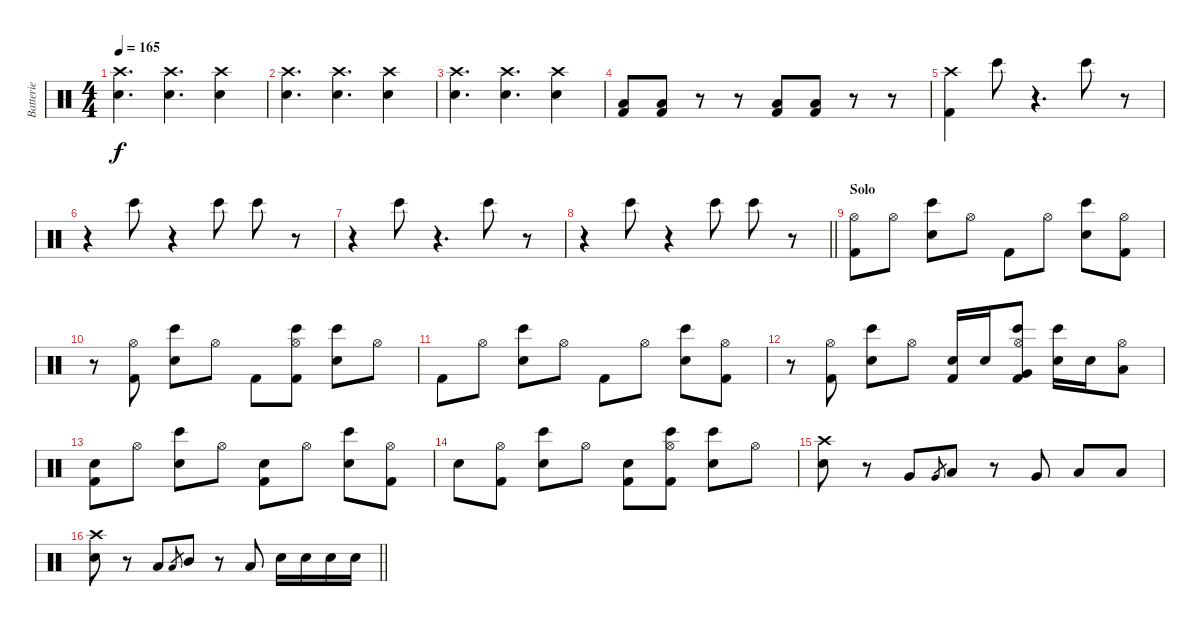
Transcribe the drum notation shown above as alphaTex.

\track ("Batterie" "Batterie") {instrument percussion}
\staff {score}
\articulation defaults
\ts (4 4)
\tempo 165
\clef neutral
\ks c
("Crash high (hit)" "Electric Snare (hit)").4{d dy f} ("Crash high (hit)" "Electric Snare (hit)").4{d} ("Crash high (hit)" "Electric Snare (hit)").4 |
("Crash high (hit)" "Electric Snare (hit)").4{d} ("Crash high (hit)" "Electric Snare (hit)").4{d} ("Crash high (hit)" "Electric Snare (hit)").4 |
("Crash high (hit)" "Electric Snare (hit)").4{d} ("Crash high (hit)" "Electric Snare (hit)").4{d} ("Crash high (hit)" "Electric Snare (hit)").4 |
("Kick (hit) 2" "Low Floor Tom (hit)").8 ("Kick (hit) 2" "Low Floor Tom (hit)").8 r.8 r.8 ("Kick (hit) 2" "Low Floor Tom (hit)").8 ("Kick (hit) 2" "Low Floor Tom (hit)").8 r.8 r.8 |
("Crash high (hit)" "Kick (hit) 2").4 "Bongo High (hit)".8 r.4{d} "Bongo High (hit)".8 r.8 |
r.4 "Bongo High (hit)".8 r.4 "Bongo High (hit)".8 "Bongo High (hit)".8 r.8 |
r.4 "Bongo High (hit)".8 r.4{d} "Bongo High (hit)".8 r.8 |
\barLineRight lightlight
r.4 "Bongo High (hit)".8 r.4 "Bongo High (hit)".8 "Bongo High (hit)".8 r.8 |
\section ("" "Solo")
("Hi-Hat (open)" "Kick (hit) 2").8 "Hi-Hat (open)".8 ("Electric Snare (hit)" "Bongo High (hit)").8 "Hi-Hat (open)".8 "Kick (hit) 2".8 "Hi-Hat (open)".8 ("Electric Snare (hit)" "Bongo High (hit)").8 ("Hi-Hat (open)" "Kick (hit) 2").8 |
r.8 ("Hi-Hat (open)" "Kick (hit) 2").8 ("Electric Snare (hit)" "Bongo High (hit)").8 "Hi-Hat (open)".8 "Kick (hit) 2".8 ("Hi-Hat (open)" "Kick (hit) 2" "Bongo High (hit)").8 ("Electric Snare (hit)" "Bongo High (hit)").8 "Hi-Hat (open)".8 |
"Kick (hit) 2".8 "Hi-Hat (open)".8 ("Electric Snare (hit)" "Bongo High (hit)").8 "Hi-Hat (open)".8 "Kick (hit) 2".8 "Hi-Hat (open)".8 ("Electric Snare (hit)" "Bongo High (hit)").8 ("Hi-Hat (open)" "Kick (hit) 2").8 |
r.8 ("Hi-Hat (open)" "Kick (hit) 2").8 ("Electric Snare (hit)" "Bongo High (hit)").8 "Hi-Hat (open)".8 ("Kick (hit) 2" "Electric Snare (hit)").16 "Electric Snare (hit)".16 ("Hi-Hat (open)" "Kick (hit) 2" "Very Low Tom (hit)" "Bongo High (hit)").8 ("Electric Snare (hit)" "Bongo High (hit)").16 "Electric Snare (hit)".16 ("Hi-Hat (open)" "Low Floor Tom (hit)").8 |
("Kick (hit) 2" "Electric Snare (hit)").8 "Hi-Hat (open)".8 ("Electric Snare (hit)" "Bongo High (hit)").8 "Hi-Hat (open)".8 ("Kick (hit) 2" "Electric Snare (hit)").8 "Hi-Hat (open)".8 ("Electric Snare (hit)" "Bongo High (hit)").8 ("Hi-Hat (open)" "Kick (hit) 2").8 |
"Electric Snare (hit)".8 ("Hi-Hat (open)" "Kick (hit) 2").8 ("Electric Snare (hit)" "Bongo High (hit)").8 "Hi-Hat (open)".8 ("Kick (hit) 2" "Electric Snare (hit)").8 ("Hi-Hat (open)" "Kick (hit) 2" "Bongo High (hit)").8 ("Electric Snare (hit)" "Bongo High (hit)").8 "Hi-Hat (open)".8 |
("Crash high (hit)" "Electric Snare (hit)").8 r.8 "Very Low Tom (hit)".8 "Very Low Tom (hit)".8{gr} "Low Tom (hit)".8 r.8 "Very Low Tom (hit)".8 "Low Floor Tom (hit)".8 "Low Floor Tom (hit)".8 |
\barLineRight lightlight
("Crash high (hit)" "Electric Snare (hit)").8 r.8 "Low Tom (hit)".8 "Low Tom (hit)".8{gr} "Mid Tom (hit)".8 r.8 "Low Tom (hit)".8 "Electric Snare (hit)".16 "Electric Snare (hit)".16 "Electric Snare (hit)".16 "Electric Snare (hit)".16
